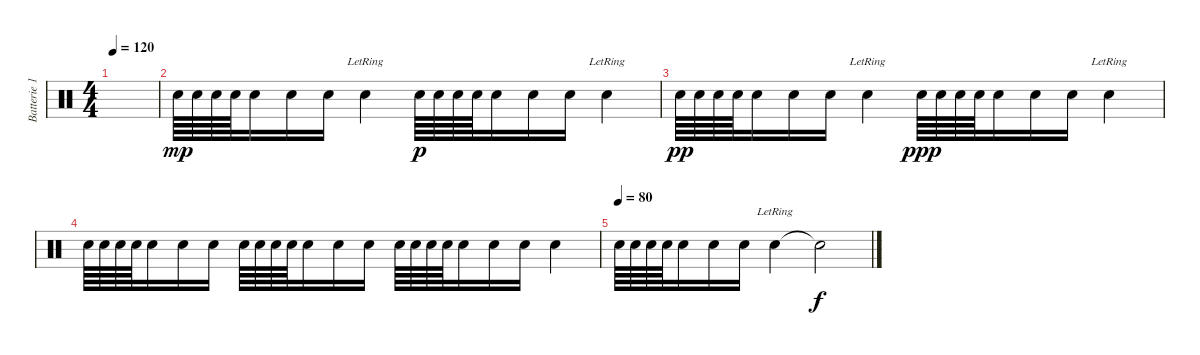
\track ("Batterie 1 (armee theme)" "Batterie 1") {instrument percussion}
\staff {score}
\articulation defaults
\ts (4 4)
\tempo 120
\clef neutral
\ks c
|
"Electric Snare (hit)".64{dy mp} "Electric Snare (hit)".64 "Electric Snare (hit)".64 "Electric Snare (hit)".64 "Electric Snare (hit)".16 "Electric Snare (hit)".16 "Electric Snare (hit)".16 "Electric Snare (hit)"{lr}.4 "Electric Snare (hit)".64{dy p} "Electric Snare (hit)".64 "Electric Snare (hit)".64 "Electric Snare (hit)".64 "Electric Snare (hit)".16 "Electric Snare (hit)".16 "Electric Snare (hit)".16 "Electric Snare (hit)"{lr}.4 |
"Electric Snare (hit)".64{dy pp} "Electric Snare (hit)".64 "Electric Snare (hit)".64 "Electric Snare (hit)".64 "Electric Snare (hit)".16 "Electric Snare (hit)".16 "Electric Snare (hit)".16 "Electric Snare (hit)"{lr}.4 "Electric Snare (hit)".64{dy ppp} "Electric Snare (hit)".64 "Electric Snare (hit)".64 "Electric Snare (hit)".64 "Electric Snare (hit)".16 "Electric Snare (hit)".16 "Electric Snare (hit)".16 "Electric Snare (hit)"{lr}.4 |
"Electric Snare (hit)".64{volume 9} "Electric Snare (hit)".64 "Electric Snare (hit)".64 "Electric Snare (hit)".64 "Electric Snare (hit)".16 "Electric Snare (hit)".16 "Electric Snare (hit)".16 "Electric Snare (hit)".64{volume 5} "Electric Snare (hit)".64 "Electric Snare (hit)".64 "Electric Snare (hit)".64 "Electric Snare (hit)".16 "Electric Snare (hit)".16 "Electric Snare (hit)".16 "Electric Snare (hit)".64 "Electric Snare (hit)".64 "Electric Snare (hit)".64 "Electric Snare (hit)".64 "Electric Snare (hit)".16 "Electric Snare (hit)".16 "Electric Snare (hit)".16 "Electric Snare (hit)".4 |
\tempo (80)
"Electric Snare (hit)".64{volume 6} "Electric Snare (hit)".64 "Electric Snare (hit)".64 "Electric Snare (hit)".64 "Electric Snare (hit)".16 "Electric Snare (hit)".16 "Electric Snare (hit)".16 "Electric Snare (hit)"{lr}.4 "Snare (hit)"{t}.2{dy f}
